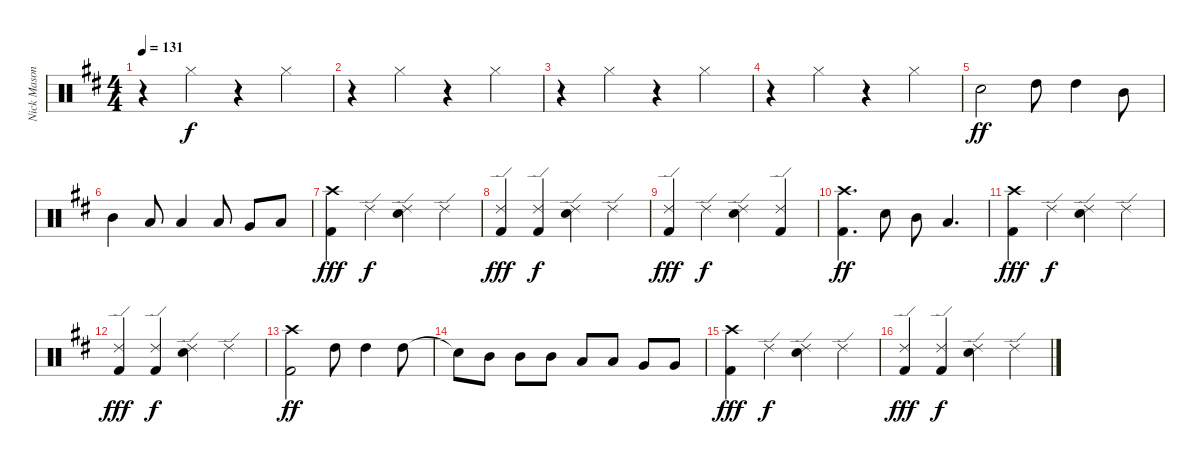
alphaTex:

\track ("Nick Mason" "Nick Mason") {instrument percussion}
\staff {score}
\articulation defaults
\ts (4 4)
\tempo 131
\clef neutral
\ks d
r.4{dy f} "Hi-Hat (closed)".4 r.4 "Hi-Hat (closed)".4 |
r.4 "Hi-Hat (closed)".4 r.4 "Hi-Hat (closed)".4 |
r.4 "Hi-Hat (closed)".4 r.4 "Hi-Hat (closed)".4 |
r.4 "Hi-Hat (closed)".4 r.4 "Hi-Hat (closed)".4 |
"Electric Snare (hit)".2{dy ff volume 13} "High Tom (hit)".8 "High Tom (hit)".4 "Mid Tom (hit)".8 |
"Mid Tom (hit)".4 "Low Tom (hit)".8 "Low Tom (hit)".4 "Low Tom (hit)".8 "Very Low Tom (hit)".8 "Low Floor Tom (hit)".8 |
("Crash high (hit)" "Kick (hit) 2").4{dy fff} "Ride (edge) 2".4{dy f} ("Ride (edge) 2" "Electric Snare (hit)").4 "Ride (edge) 2".4 |
("Ride (edge) 2" "Kick (hit) 2").4{dy fff} ("Ride (edge) 2" "Kick (hit) 2").4{dy f} ("Ride (edge) 2" "Electric Snare (hit)").4 "Ride (edge) 2".4 |
("Ride (edge) 2" "Kick (hit) 2").4{dy fff} "Ride (edge) 2".4{dy f} ("Ride (edge) 2" "Electric Snare (hit)").4 ("Ride (edge) 2" "Kick (hit) 2").4 |
("Crash high (hit)" "Kick (hit) 2").4{d dy ff} "Electric Snare (hit)".8 "Mid Tom (hit)".8 "Low Tom (hit)".4{d} |
("Crash high (hit)" "Kick (hit) 2").4{dy fff} "Ride (edge) 2".4{dy f} ("Ride (edge) 2" "Electric Snare (hit)").4 "Ride (edge) 2".4 |
("Ride (edge) 2" "Kick (hit) 2").4{dy fff} ("Ride (edge) 2" "Kick (hit) 2").4{dy f} ("Ride (edge) 2" "Electric Snare (hit)").4 "Ride (edge) 2".4 |
("Crash high (hit)" "Kick (hit) 2").2{dy ff} "High Tom (hit)".8 "High Tom (hit)".4 "High Tom (hit)".8 |
"Snare (hit)"{t}.8 "Mid Tom (hit)".8 "Mid Tom (hit)".8 "Mid Tom (hit)".8 "Low Tom (hit)".8 "Low Tom (hit)".8 "Very Low Tom (hit)".8 "Very Low Tom (hit)".8 |
("Crash high (hit)" "Kick (hit) 2").4{dy fff} "Ride (edge) 2".4{dy f} ("Ride (edge) 2" "Electric Snare (hit)").4 "Ride (edge) 2".4 |
("Ride (edge) 2" "Kick (hit) 2").4{dy fff} ("Ride (edge) 2" "Kick (hit) 2").4{dy f} ("Ride (edge) 2" "Electric Snare (hit)").4 "Ride (edge) 2".4
